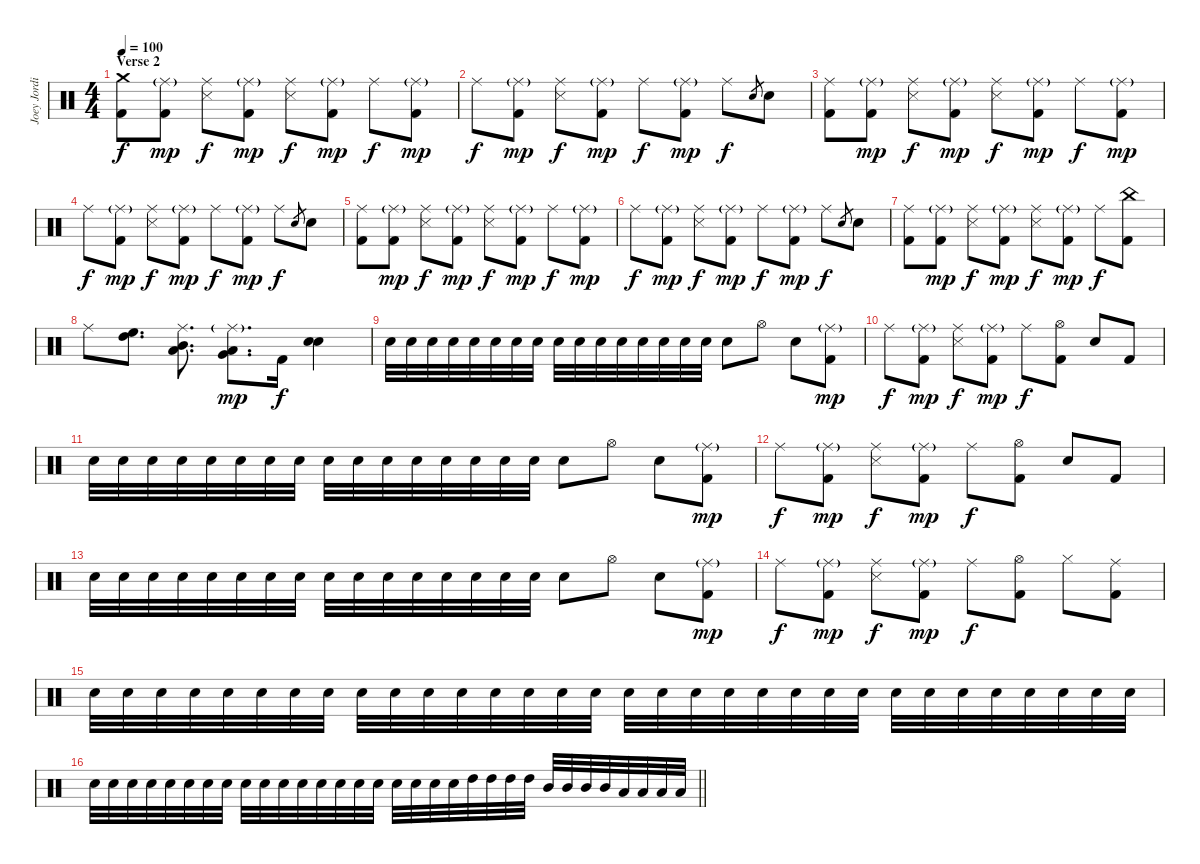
\track ("Joey Jordison" "Joey Jordi") {instrument percussion}
\staff {score}
\articulation defaults
\ts (4 4)
\section ("" "Verse 2")
\tempo 100
\clef neutral
\ks c
("Crash medium (hit)" "Kick (hit) 2").8{dy f} ("Ride (middle)"{g} "Kick (hit) 2").8{dy mp} ("Ride (middle)" "Snare (side stick) 3").8{dy f} ("Ride (middle)"{g} "Kick (hit) 2").8{dy mp} ("Ride (middle)" "Snare (side stick) 3").8{dy f} ("Ride (middle)"{g} "Kick (hit) 2").8{dy mp} "Ride (middle)".8{dy f} ("Ride (middle)"{g} "Kick (hit) 2").8{dy mp} |
"Ride (middle)".8{dy f} ("Ride (middle)"{g} "Kick (hit) 2").8{dy mp} ("Ride (middle)" "Snare (side stick) 3").8{dy f} ("Ride (middle)"{g} "Kick (hit) 2").8{dy mp} "Ride (middle)".8{dy f} ("Ride (middle)"{g} "Kick (hit) 2").8{dy mp} "Ride (middle)".8{dy f} "Electric Snare (hit)".8{gr} "Electric Snare (hit)".8 |
("Ride (middle)" "Kick (hit) 2").8 ("Ride (middle)"{g} "Kick (hit) 2").8{dy mp} ("Ride (middle)" "Snare (side stick) 3").8{dy f} ("Ride (middle)"{g} "Kick (hit) 2").8{dy mp} ("Ride (middle)" "Snare (side stick) 3").8{dy f} ("Ride (middle)"{g} "Kick (hit) 2").8{dy mp} "Ride (middle)".8{dy f} ("Ride (middle)"{g} "Kick (hit) 2").8{dy mp} |
"Ride (middle)".8{dy f} ("Ride (middle)"{g} "Kick (hit) 2").8{dy mp} ("Ride (middle)" "Snare (side stick) 3").8{dy f} ("Ride (middle)"{g} "Kick (hit) 2").8{dy mp} "Ride (middle)".8{dy f} ("Ride (middle)"{g} "Kick (hit) 2").8{dy mp} "Ride (middle)".8{dy f} "Electric Snare (hit)".8{gr} "Electric Snare (hit)".8 |
("Ride (middle)" "Kick (hit) 2").8 ("Ride (middle)"{g} "Kick (hit) 2").8{dy mp} ("Ride (middle)" "Snare (side stick) 3").8{dy f} ("Ride (middle)"{g} "Kick (hit) 2").8{dy mp} ("Ride (middle)" "Snare (side stick) 3").8{dy f} ("Ride (middle)"{g} "Kick (hit) 2").8{dy mp} "Ride (middle)".8{dy f} ("Ride (middle)"{g} "Kick (hit) 2").8{dy mp} |
"Ride (middle)".8{dy f} ("Ride (middle)"{g} "Kick (hit) 2").8{dy mp} ("Ride (middle)" "Snare (side stick) 3").8{dy f} ("Ride (middle)"{g} "Kick (hit) 2").8{dy mp} "Ride (middle)".8{dy f} ("Ride (middle)"{g} "Kick (hit) 2").8{dy mp} "Ride (middle)".8{dy f} "Electric Snare (hit)".8{gr} "Electric Snare (hit)".8 |
("Ride (middle)" "Kick (hit) 2").8 ("Ride (middle)"{g} "Kick (hit) 2").8{dy mp} ("Ride (middle)" "Snare (side stick) 3").8{dy f} ("Ride (middle)"{g} "Kick (hit) 2").8{dy mp} ("Ride (middle)" "Snare (side stick) 3").8{dy f} ("Ride (middle)"{g} "Kick (hit) 2").8{dy mp} "Ride (middle)".8{dy f} ("China (hit)" "Kick (hit) 2").8 |
"Ride (middle)".8 ("High Floor Tom (hit)" "High Tom (hit)").8{d} ("Ride (middle)" "Mid Tom (hit)" "Low Tom (hit)").8{d} ("Ride (middle)"{g} "Very Low Tom (hit)" "Low Floor Tom (hit)").8{d dy mp} "Kick (hit) 2".16{dy f} ("Electric Snare (hit)" "Electric Snare (hit)").4 |
"Electric Snare (hit)".32 "Electric Snare (hit)".32 "Electric Snare (hit)".32 "Electric Snare (hit)".32 "Electric Snare (hit)".32 "Electric Snare (hit)".32 "Electric Snare (hit)".32 "Electric Snare (hit)".32 "Electric Snare (hit)".32 "Electric Snare (hit)".32 "Electric Snare (hit)".32 "Electric Snare (hit)".32 "Electric Snare (hit)".32 "Electric Snare (hit)".32 "Electric Snare (hit)".32 "Electric Snare (hit)".32 "Electric Snare (hit)".8 "Hi-Hat (open)".8 "Electric Snare (hit)".8 ("Ride (middle)"{g} "Kick (hit) 2").8{dy mp} |
"Ride (middle)".8{dy f} ("Ride (middle)"{g} "Kick (hit) 2").8{dy mp} ("Ride (middle)" "Snare (side stick) 3").8{dy f} ("Ride (middle)"{g} "Kick (hit) 2").8{dy mp} "Ride (middle)".8{dy f} ("Hi-Hat (open)" "Kick (hit) 2").8 "Electric Snare (hit)".8 "Kick (hit) 2".8 |
"Electric Snare (hit)".32 "Electric Snare (hit)".32 "Electric Snare (hit)".32 "Electric Snare (hit)".32 "Electric Snare (hit)".32 "Electric Snare (hit)".32 "Electric Snare (hit)".32 "Electric Snare (hit)".32 "Electric Snare (hit)".32 "Electric Snare (hit)".32 "Electric Snare (hit)".32 "Electric Snare (hit)".32 "Electric Snare (hit)".32 "Electric Snare (hit)".32 "Electric Snare (hit)".32 "Electric Snare (hit)".32 "Electric Snare (hit)".8 "Hi-Hat (open)".8 "Electric Snare (hit)".8 ("Ride (middle)"{g} "Kick (hit) 2").8{dy mp} |
"Ride (middle)".8{dy f} ("Ride (middle)"{g} "Kick (hit) 2").8{dy mp} ("Ride (middle)" "Snare (side stick) 3").8{dy f} ("Ride (middle)"{g} "Kick (hit) 2").8{dy mp} "Ride (middle)".8{dy f} ("Hi-Hat (open)" "Kick (hit) 2").8 "Electric Snare (hit)".8 "Kick (hit) 2".8 |
"Electric Snare (hit)".32 "Electric Snare (hit)".32 "Electric Snare (hit)".32 "Electric Snare (hit)".32 "Electric Snare (hit)".32 "Electric Snare (hit)".32 "Electric Snare (hit)".32 "Electric Snare (hit)".32 "Electric Snare (hit)".32 "Electric Snare (hit)".32 "Electric Snare (hit)".32 "Electric Snare (hit)".32 "Electric Snare (hit)".32 "Electric Snare (hit)".32 "Electric Snare (hit)".32 "Electric Snare (hit)".32 "Electric Snare (hit)".8 "Hi-Hat (open)".8 "Electric Snare (hit)".8 ("Ride (middle)"{g} "Kick (hit) 2").8{dy mp} |
"Ride (middle)".8{dy f} ("Ride (middle)"{g} "Kick (hit) 2").8{dy mp} ("Ride (middle)" "Snare (side stick) 3").8{dy f} ("Ride (middle)"{g} "Kick (hit) 2").8{dy mp} "Ride (middle)".8{dy f} ("Hi-Hat (open)" "Kick (hit) 2").8 "Hi-Hat (closed)".8 ("Ride (middle)" "Kick (hit) 2").8 |
"Electric Snare (hit)".32 "Electric Snare (hit)".32 "Electric Snare (hit)".32 "Electric Snare (hit)".32 "Electric Snare (hit)".32 "Electric Snare (hit)".32 "Electric Snare (hit)".32 "Electric Snare (hit)".32 "Electric Snare (hit)".32 "Electric Snare (hit)".32 "Electric Snare (hit)".32 "Electric Snare (hit)".32 "Electric Snare (hit)".32 "Electric Snare (hit)".32 "Electric Snare (hit)".32 "Electric Snare (hit)".32 "Electric Snare (hit)".32 "Electric Snare (hit)".32 "Electric Snare (hit)".32 "Electric Snare (hit)".32 "Electric Snare (hit)".32 "Electric Snare (hit)".32 "Electric Snare (hit)".32 "Electric Snare (hit)".32 "Electric Snare (hit)".32 "Electric Snare (hit)".32 "Electric Snare (hit)".32 "Electric Snare (hit)".32 "Electric Snare (hit)".32 "Electric Snare (hit)".32 "Electric Snare (hit)".32 "Electric Snare (hit)".32 |
\barLineRight lightlight "Electric Snare (hit)".32 "Electric Snare (hit)".32 "Electric Snare (hit)".32 "Electric Snare (hit)".32 "Electric Snare (hit)".32 "Electric Snare (hit)".32 "Electric Snare (hit)".32 "Electric Snare (hit)".32 "Electric Snare (hit)".32 "Electric Snare (hit)".32 "Electric Snare (hit)".32 "Electric Snare (hit)".32 "Electric Snare (hit)".32 "Electric Snare (hit)".32 "Electric Snare (hit)".32 "Electric Snare (hit)".32 "Electric Snare (hit)".32 "Electric Snare (hit)".32 "Electric Snare (hit)".32 "Electric Snare (hit)".32 "High Tom (hit)".32 "High Tom (hit)".32 "High Tom (hit)".32 "High Tom (hit)".32 "Mid Tom (hit)".32 "Mid Tom (hit)".32 "Mid Tom (hit)".32 "Mid Tom (hit)".32 "Low Tom (hit)".32 "Low Tom (hit)".32 "Low Tom (hit)".32 "Low Tom (hit)".32
